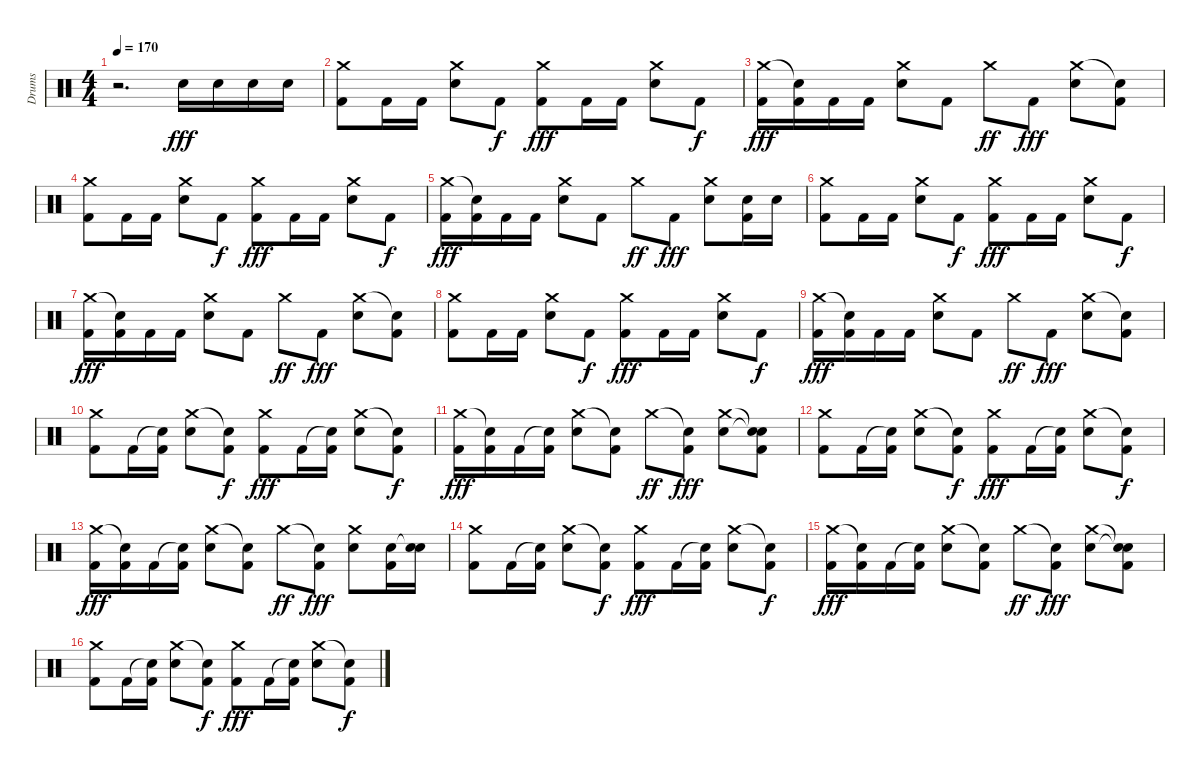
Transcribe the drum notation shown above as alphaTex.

\track ("Drums" "Drums") {instrument percussion}
\staff {score}
\articulation defaults
\ts (4 4)
\tempo 170
\clef neutral
\ks c
r.2{d dy fff} "Snare (hit) 2".16 "Snare (hit) 2".16 "Snare (hit) 2".16 "Snare (hit) 2".16 |
("Crash medium (hit)" "Kick (hit) 2").8 "Kick (hit) 2".16 "Kick (hit) 2".16 ("Crash medium (hit)" "Snare (hit) 2").8 "Kick (hit) 2".8{dy f} ("Crash medium (hit)" "Kick (hit) 2").8{dy fff} "Kick (hit) 2".16 "Kick (hit) 2".16 ("Crash medium (hit)" "Snare (hit) 2").8 "Kick (hit) 2".8{dy f} |
("Crash medium (hit)" "Kick (hit) 2").16{dy fff} ("Snare (hit)"{t} "Kick (hit) 2").16 "Kick (hit) 2".16 "Kick (hit) 2".16 ("Crash medium (hit)" "Snare (hit) 2").8 "Kick (hit) 2".8 "Crash medium (hit)".8{dy ff} "Kick (hit) 2".8{dy fff} ("Crash medium (hit)" "Snare (hit) 2").8 ("Snare (hit)"{t} "Kick (hit) 2").8 |
("Crash medium (hit)" "Kick (hit) 2").8 "Kick (hit) 2".16 "Kick (hit) 2".16 ("Crash medium (hit)" "Snare (hit) 2").8 "Kick (hit) 2".8{dy f} ("Crash medium (hit)" "Kick (hit) 2").8{dy fff} "Kick (hit) 2".16 "Kick (hit) 2".16 ("Crash medium (hit)" "Snare (hit) 2").8 "Kick (hit) 2".8{dy f} |
("Crash medium (hit)" "Kick (hit) 2").16{dy fff} ("Snare (hit)"{t} "Kick (hit) 2").16 "Kick (hit) 2".16 "Kick (hit) 2".16 ("Crash medium (hit)" "Snare (hit) 2").8 "Kick (hit) 2".8 "Crash medium (hit)".8{dy ff} "Kick (hit) 2".8{dy fff} ("Crash medium (hit)" "Snare (hit) 2").8 ("Snare (hit) 2" "Kick (hit) 2").16 "Snare (hit) 2".16 |
("Crash medium (hit)" "Kick (hit) 2").8 "Kick (hit) 2".16 "Kick (hit) 2".16 ("Crash medium (hit)" "Snare (hit) 2").8 "Kick (hit) 2".8{dy f} ("Crash medium (hit)" "Kick (hit) 2").8{dy fff} "Kick (hit) 2".16 "Kick (hit) 2".16 ("Crash medium (hit)" "Snare (hit) 2").8 "Kick (hit) 2".8{dy f} |
("Crash medium (hit)" "Kick (hit) 2").16{dy fff} ("Snare (hit)"{t} "Kick (hit) 2").16 "Kick (hit) 2".16 "Kick (hit) 2".16 ("Crash medium (hit)" "Snare (hit) 2").8 "Kick (hit) 2".8 "Crash medium (hit)".8{dy ff} "Kick (hit) 2".8{dy fff} ("Crash medium (hit)" "Snare (hit) 2").8 ("Snare (hit)"{t} "Kick (hit) 2").8 |
("Crash medium (hit)" "Kick (hit) 2").8 "Kick (hit) 2".16 "Kick (hit) 2".16 ("Crash medium (hit)" "Snare (hit) 2").8 "Kick (hit) 2".8{dy f} ("Crash medium (hit)" "Kick (hit) 2").8{dy fff} "Kick (hit) 2".16 "Kick (hit) 2".16 ("Crash medium (hit)" "Snare (hit) 2").8 "Kick (hit) 2".8{dy f} |
("Crash medium (hit)" "Kick (hit) 2").16{dy fff} ("Snare (hit)"{t} "Kick (hit) 2").16 "Kick (hit) 2".16 "Kick (hit) 2".16 ("Crash medium (hit)" "Snare (hit) 2").8 "Kick (hit) 2".8 "Crash medium (hit)".8{dy ff} "Kick (hit) 2".8{dy fff} ("Crash medium (hit)" "Snare (hit) 2").8 ("Snare (hit)"{t} "Kick (hit) 2").8 |
("Crash medium (hit)" "Kick (hit) 2").8 "Kick (hit) 2".16 ("Snare (hit)"{t} "Kick (hit) 2").16 ("Crash medium (hit)" "Snare (hit) 2").8 ("Snare (hit)"{t} "Kick (hit) 2").8{dy f} ("Crash medium (hit)" "Kick (hit) 2").8{dy fff} "Kick (hit) 2".16 ("Snare (hit)"{t} "Kick (hit) 2").16 ("Crash medium (hit)" "Snare (hit) 2").8 ("Snare (hit)"{t} "Kick (hit) 2").8{dy f} |
("Crash medium (hit)" "Kick (hit) 2").16{dy fff} ("Snare (hit)"{t} "Kick (hit) 2").16 "Kick (hit) 2".16 ("Snare (hit)"{t} "Kick (hit) 2").16 ("Crash medium (hit)" "Snare (hit) 2").8 ("Snare (hit)"{t} "Kick (hit) 2").8 "Crash medium (hit)".8{dy ff} ("Snare (hit)"{t} "Kick (hit) 2").8{dy fff} ("Crash medium (hit)" "Snare (hit) 2").8 ("Snare (hit)"{t} "Snare (hit)"{t} "Kick (hit) 2").8 |
("Crash medium (hit)" "Kick (hit) 2").8 "Kick (hit) 2".16 ("Snare (hit)"{t} "Kick (hit) 2").16 ("Crash medium (hit)" "Snare (hit) 2").8 ("Snare (hit)"{t} "Kick (hit) 2").8{dy f} ("Crash medium (hit)" "Kick (hit) 2").8{dy fff} "Kick (hit) 2".16 ("Snare (hit)"{t} "Kick (hit) 2").16 ("Crash medium (hit)" "Snare (hit) 2").8 ("Snare (hit)"{t} "Kick (hit) 2").8{dy f} |
("Crash medium (hit)" "Kick (hit) 2").16{dy fff} ("Snare (hit)"{t} "Kick (hit) 2").16 "Kick (hit) 2".16 ("Snare (hit)"{t} "Kick (hit) 2").16 ("Crash medium (hit)" "Snare (hit) 2").8 ("Snare (hit)"{t} "Kick (hit) 2").8 "Crash medium (hit)".8{dy ff} ("Snare (hit)"{t} "Kick (hit) 2").8{dy fff} ("Crash medium (hit)" "Snare (hit) 2").8 ("Snare (hit) 2" "Kick (hit) 2").16 ("Snare (hit)"{t} "Snare (hit) 2").16 |
("Crash medium (hit)" "Kick (hit) 2").8 "Kick (hit) 2".16 ("Snare (hit)"{t} "Kick (hit) 2").16 ("Crash medium (hit)" "Snare (hit) 2").8 ("Snare (hit)"{t} "Kick (hit) 2").8{dy f} ("Crash medium (hit)" "Kick (hit) 2").8{dy fff} "Kick (hit) 2".16 ("Snare (hit)"{t} "Kick (hit) 2").16 ("Crash medium (hit)" "Snare (hit) 2").8 ("Snare (hit)"{t} "Kick (hit) 2").8{dy f} |
("Crash medium (hit)" "Kick (hit) 2").16{dy fff} ("Snare (hit)"{t} "Kick (hit) 2").16 "Kick (hit) 2".16 ("Snare (hit)"{t} "Kick (hit) 2").16 ("Crash medium (hit)" "Snare (hit) 2").8 ("Snare (hit)"{t} "Kick (hit) 2").8 "Crash medium (hit)".8{dy ff} ("Snare (hit)"{t} "Kick (hit) 2").8{dy fff} ("Crash medium (hit)" "Snare (hit) 2").8 ("Snare (hit)"{t} "Snare (hit)"{t} "Kick (hit) 2").8 |
("Crash medium (hit)" "Kick (hit) 2").8 "Kick (hit) 2".16 ("Snare (hit)"{t} "Kick (hit) 2").16 ("Crash medium (hit)" "Snare (hit) 2").8 ("Snare (hit)"{t} "Kick (hit) 2").8{dy f} ("Crash medium (hit)" "Kick (hit) 2").8{dy fff} "Kick (hit) 2".16 ("Snare (hit)"{t} "Kick (hit) 2").16 ("Crash medium (hit)" "Snare (hit) 2").8 ("Snare (hit)"{t} "Kick (hit) 2").8{dy f}
